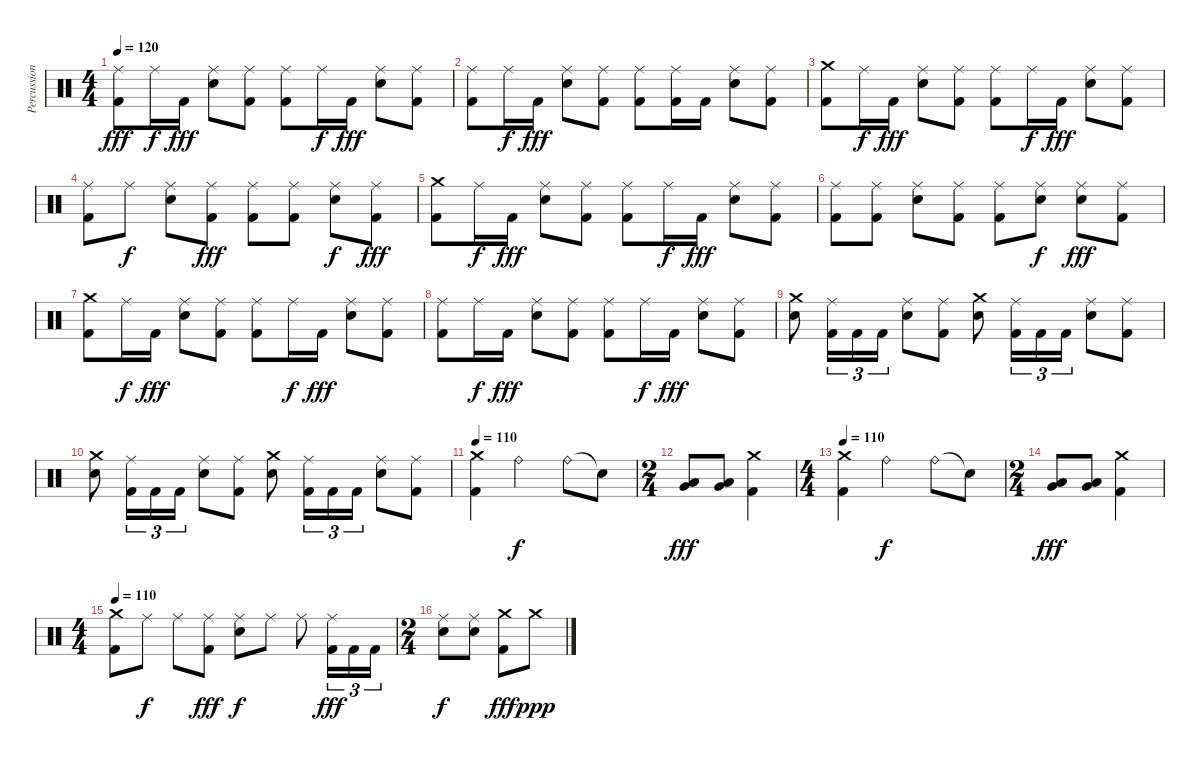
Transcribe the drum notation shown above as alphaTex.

\track ("Percussion" "Percussion") {instrument percussion}
\staff {score}
\articulation defaults
\ts (4 4)
\tempo 120
\clef neutral
\ks c
("Ride (middle)" "Kick (hit) 2").8{dy fff} "Ride (middle)".16{dy f} "Kick (hit) 2".16{dy fff} ("Ride (middle)" "Electric Snare (hit)").8 ("Ride (middle)" "Kick (hit) 2").8 ("Ride (middle)" "Kick (hit) 2").8 "Ride (middle)".16{dy f} "Kick (hit) 2".16{dy fff} ("Ride (middle)" "Electric Snare (hit)").8 ("Ride (middle)" "Kick (hit) 2").8 |
("Ride (middle)" "Kick (hit) 2").8 "Ride (middle)".16{dy f} "Kick (hit) 2".16{dy fff} ("Ride (middle)" "Electric Snare (hit)").8 ("Ride (middle)" "Kick (hit) 2").8 ("Ride (middle)" "Kick (hit) 2").8 ("Ride (middle)" "Kick (hit) 2").16 "Kick (hit) 2".16 ("Ride (middle)" "Electric Snare (hit)").8 ("Ride (middle)" "Kick (hit) 2").8 |
("Crash medium (hit)" "Kick (hit) 2").8 "Ride (middle)".16{dy f} "Kick (hit) 2".16{dy fff} ("Ride (middle)" "Electric Snare (hit)").8 ("Ride (middle)" "Kick (hit) 2").8 ("Ride (middle)" "Kick (hit) 2").8 "Ride (middle)".16{dy f} "Kick (hit) 2".16{dy fff} ("Ride (middle)" "Electric Snare (hit)").8 ("Ride (middle)" "Kick (hit) 2").8 |
("Ride (middle)" "Kick (hit) 2").8 "Ride (middle)".8{dy f} ("Ride (middle)" "Electric Snare (hit)").8 ("Ride (middle)" "Kick (hit) 2").8{dy fff} ("Ride (middle)" "Kick (hit) 2").8 ("Ride (middle)" "Kick (hit) 2").8 ("Ride (middle)" "Electric Snare (hit)").8{dy f} ("Ride (middle)" "Kick (hit) 2").8{dy fff} |
("Crash medium (hit)" "Kick (hit) 2").8 "Ride (middle)".16{dy f} "Kick (hit) 2".16{dy fff} ("Ride (middle)" "Electric Snare (hit)").8 ("Ride (middle)" "Kick (hit) 2").8 ("Ride (middle)" "Kick (hit) 2").8 "Ride (middle)".16{dy f} "Kick (hit) 2".16{dy fff} ("Ride (middle)" "Electric Snare (hit)").8 ("Ride (middle)" "Kick (hit) 2").8 |
("Ride (middle)" "Kick (hit) 2").8 ("Ride (middle)" "Kick (hit) 2").8 ("Ride (middle)" "Electric Snare (hit)").8 ("Ride (middle)" "Kick (hit) 2").8 ("Ride (middle)" "Kick (hit) 2").8 ("Ride (middle)" "Electric Snare (hit)").8{dy f} ("Ride (middle)" "Electric Snare (hit)").8{dy fff} ("Ride (middle)" "Kick (hit) 2").8 |
("Crash medium (hit)" "Kick (hit) 2").8 "Ride (middle)".16{dy f} "Kick (hit) 2".16{dy fff} ("Ride (middle)" "Electric Snare (hit)").8 ("Ride (middle)" "Kick (hit) 2").8 ("Ride (middle)" "Kick (hit) 2").8 "Ride (middle)".16{dy f} "Kick (hit) 2".16{dy fff} ("Ride (middle)" "Electric Snare (hit)").8 ("Ride (middle)" "Kick (hit) 2").8 |
("Ride (middle)" "Kick (hit) 2").8 "Ride (middle)".16{dy f} "Kick (hit) 2".16{dy fff} ("Ride (middle)" "Electric Snare (hit)").8 ("Ride (middle)" "Kick (hit) 2").8 ("Ride (middle)" "Kick (hit) 2").8 "Ride (middle)".16{dy f} "Kick (hit) 2".16{dy fff} ("Ride (middle)" "Electric Snare (hit)").8 ("Ride (middle)" "Kick (hit) 2").8 |
("Crash medium (hit)" "Snare (hit) 2").8 ("Ride (middle)" "Kick (hit) 2").16{tu (3 2)} "Kick (hit) 2".16{tu (3 2)} "Kick (hit) 2".16{tu (3 2)} ("Ride (middle)" "Snare (hit) 2").8 ("Ride (middle)" "Kick (hit) 2").8 ("Crash medium (hit)" "Snare (hit) 2").8 ("Ride (middle)" "Kick (hit) 2").16{tu (3 2)} "Kick (hit) 2".16{tu (3 2)} "Kick (hit) 2".16{tu (3 2)} ("Ride (middle)" "Snare (hit) 2").8 ("Ride (middle)" "Kick (hit) 2").8 |
("Crash medium (hit)" "Snare (hit) 2").8 ("Ride (middle)" "Kick (hit) 2").16{tu (3 2)} "Kick (hit) 2".16{tu (3 2)} "Kick (hit) 2".16{tu (3 2)} ("Ride (middle)" "Snare (hit) 2").8 ("Ride (middle)" "Kick (hit) 2").8 ("Crash medium (hit)" "Snare (hit) 2").8 ("Ride (middle)" "Kick (hit) 2").16{tu (3 2)} "Kick (hit) 2".16{tu (3 2)} "Kick (hit) 2".16{tu (3 2)} ("Ride (middle)" "Snare (hit) 2").8 ("Ride (middle)" "Kick (hit) 2").8 |
\tempo 110
("Crash medium (hit)" "Kick (hit) 2").4 "Ride (bell)".2{dy f} "Ride (bell)".8 "Snare (hit)"{t}.8 |
\ts (2 4)
("Very Low Tom (hit)" "Low Tom (hit)").8{dy fff} ("Very Low Tom (hit)" "Low Tom (hit)").8 ("Crash medium (hit)" "Kick (hit) 2").4 |
\ts (4 4)
\tempo 110
("Crash medium (hit)" "Kick (hit) 2").4 "Ride (bell)".2{dy f} "Ride (bell)".8 "Snare (hit)"{t}.8 |
\ts (2 4)
("Very Low Tom (hit)" "Low Tom (hit)").8{dy fff} ("Very Low Tom (hit)" "Low Tom (hit)").8 ("Crash medium (hit)" "Kick (hit) 2").4 |
\ts (4 4)
\tempo 110
("Crash medium (hit)" "Kick (hit) 2").8 "Ride (middle)".8{dy f} "Ride (middle)".8 ("Ride (middle)" "Kick (hit) 2").8{dy fff} ("Ride (middle)" "Electric Snare (hit)").8{dy f} "Ride (middle)".8 "Ride (middle)".8 ("Ride (middle)" "Kick (hit) 2").16{tu (3 2) dy fff} "Kick (hit) 2".16{tu (3 2)} "Kick (hit) 2".16{tu (3 2)} |
\ts (2 4)
("Ride (middle)" "Electric Snare (hit)").8{dy f} ("Ride (middle)" "Electric Snare (hit)").8 ("Crash medium (hit)" "Kick (hit) 2").8{dy fff} "Crash medium (hit)".8{dy ppp}
